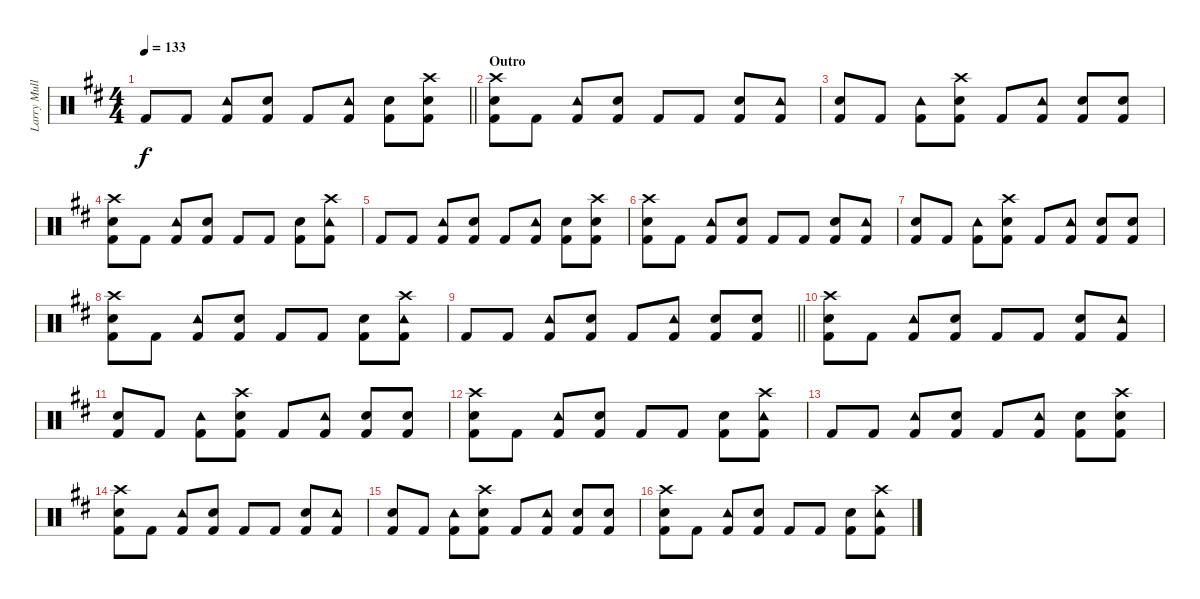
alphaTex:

\track ("Larry Mullen Jr." "Larry Mull") {instrument percussion}
\staff {score}
\articulation defaults
\ts (4 4)
\tempo 133
\clef neutral
\barLineRight lightlight
\ks d "Kick (hit) 2".8{dy f} "Kick (hit) 2".8
("Kick (hit) 2" "Tambourine (hit)").8 ("Kick (hit) 2" "Snare (hit) 2").8 "Kick (hit) 2".8 ("Kick (hit) 2" "Tambourine (hit)").8 ("Kick (hit) 2" "Snare (hit) 2").8 ("Kick (hit) 2" "Snare (hit) 2" "Crash high (hit)").8 |
\section ("" "Outro")
("Kick (hit) 2" "Crash high (hit)" "Snare (hit) 2").8 "Kick (hit) 2".8 ("Kick (hit) 2" "Tambourine (hit)").8 ("Kick (hit) 2" "Snare (hit) 2").8 "Kick (hit) 2".8 "Kick (hit) 2".8 ("Kick (hit) 2" "Snare (hit) 2").8 ("Kick (hit) 2" "Tambourine (hit)").8 |
("Kick (hit) 2" "Snare (hit) 2").8 "Kick (hit) 2".8 ("Kick (hit) 2" "Tambourine (hit)").8 ("Kick (hit) 2" "Snare (hit) 2" "Crash high (hit)").8 "Kick (hit) 2".8 ("Kick (hit) 2" "Tambourine (hit)").8 ("Kick (hit) 2" "Snare (hit) 2").8 ("Kick (hit) 2" "Snare (hit) 2").8 |
("Kick (hit) 2" "Crash high (hit)" "Snare (hit) 2").8 "Kick (hit) 2".8 ("Kick (hit) 2" "Tambourine (hit)").8 ("Kick (hit) 2" "Snare (hit) 2").8 "Kick (hit) 2".8 "Kick (hit) 2".8 ("Kick (hit) 2" "Snare (hit) 2").8 ("Kick (hit) 2" "Tambourine (hit)" "Crash high (hit)").8 |
"Kick (hit) 2".8 "Kick (hit) 2".8 ("Kick (hit) 2" "Tambourine (hit)").8 ("Kick (hit) 2" "Snare (hit) 2").8 "Kick (hit) 2".8 ("Kick (hit) 2" "Tambourine (hit)").8 ("Kick (hit) 2" "Snare (hit) 2").8 ("Kick (hit) 2" "Snare (hit) 2" "Crash high (hit)").8 |
("Kick (hit) 2" "Crash high (hit)" "Snare (hit) 2").8 "Kick (hit) 2".8 ("Kick (hit) 2" "Tambourine (hit)").8 ("Kick (hit) 2" "Snare (hit) 2").8 "Kick (hit) 2".8 "Kick (hit) 2".8 ("Kick (hit) 2" "Snare (hit) 2").8 ("Kick (hit) 2" "Tambourine (hit)").8 |
("Kick (hit) 2" "Snare (hit) 2").8 "Kick (hit) 2".8 ("Kick (hit) 2" "Tambourine (hit)").8 ("Kick (hit) 2" "Snare (hit) 2" "Crash high (hit)").8 "Kick (hit) 2".8 ("Kick (hit) 2" "Tambourine (hit)").8 ("Kick (hit) 2" "Snare (hit) 2").8 ("Kick (hit) 2" "Snare (hit) 2").8 |
("Kick (hit) 2" "Crash high (hit)" "Snare (hit) 2").8 "Kick (hit) 2".8 ("Kick (hit) 2" "Tambourine (hit)").8 ("Kick (hit) 2" "Snare (hit) 2").8 "Kick (hit) 2".8 "Kick (hit) 2".8 ("Kick (hit) 2" "Snare (hit) 2").8 ("Kick (hit) 2" "Tambourine (hit)" "Crash high (hit)").8 |
\barLineRight lightlight "Kick (hit) 2".8 "Kick (hit) 2".8
("Kick (hit) 2" "Tambourine (hit)").8 ("Kick (hit) 2" "Snare (hit) 2").8 "Kick (hit) 2".8 ("Kick (hit) 2" "Tambourine (hit)").8 ("Kick (hit) 2" "Snare (hit) 2").8 ("Kick (hit) 2" "Snare (hit) 2").8 |
("Kick (hit) 2" "Crash high (hit)" "Snare (hit) 2").8 "Kick (hit) 2".8 ("Kick (hit) 2" "Tambourine (hit)").8 ("Kick (hit) 2" "Snare (hit) 2").8 "Kick (hit) 2".8 "Kick (hit) 2".8 ("Kick (hit) 2" "Snare (hit) 2").8 ("Kick (hit) 2" "Tambourine (hit)").8 |
("Kick (hit) 2" "Snare (hit) 2").8 "Kick (hit) 2".8 ("Kick (hit) 2" "Tambourine (hit)").8 ("Kick (hit) 2" "Snare (hit) 2" "Crash high (hit)").8 "Kick (hit) 2".8 ("Kick (hit) 2" "Tambourine (hit)").8 ("Kick (hit) 2" "Snare (hit) 2").8 ("Kick (hit) 2" "Snare (hit) 2").8 |
("Kick (hit) 2" "Crash high (hit)" "Snare (hit) 2").8 "Kick (hit) 2".8 ("Kick (hit) 2" "Tambourine (hit)").8 ("Kick (hit) 2" "Snare (hit) 2").8 "Kick (hit) 2".8 "Kick (hit) 2".8 ("Kick (hit) 2" "Snare (hit) 2").8 ("Kick (hit) 2" "Tambourine (hit)" "Crash high (hit)").8 |
"Kick (hit) 2".8 "Kick (hit) 2".8 ("Kick (hit) 2" "Tambourine (hit)").8 ("Kick (hit) 2" "Snare (hit) 2").8 "Kick (hit) 2".8 ("Kick (hit) 2" "Tambourine (hit)").8 ("Kick (hit) 2" "Snare (hit) 2").8 ("Kick (hit) 2" "Snare (hit) 2" "Crash high (hit)").8 |
("Kick (hit) 2" "Crash high (hit)" "Snare (hit) 2").8 "Kick (hit) 2".8 ("Kick (hit) 2" "Tambourine (hit)").8 ("Kick (hit) 2" "Snare (hit) 2").8 "Kick (hit) 2".8 "Kick (hit) 2".8 ("Kick (hit) 2" "Snare (hit) 2").8 ("Kick (hit) 2" "Tambourine (hit)").8 |
("Kick (hit) 2" "Snare (hit) 2").8 "Kick (hit) 2".8 ("Kick (hit) 2" "Tambourine (hit)").8 ("Kick (hit) 2" "Snare (hit) 2" "Crash high (hit)").8 "Kick (hit) 2".8 ("Kick (hit) 2" "Tambourine (hit)").8 ("Kick (hit) 2" "Snare (hit) 2").8 ("Kick (hit) 2" "Snare (hit) 2").8 |
("Kick (hit) 2" "Crash high (hit)" "Snare (hit) 2").8 "Kick (hit) 2".8 ("Kick (hit) 2" "Tambourine (hit)").8 ("Kick (hit) 2" "Snare (hit) 2").8 "Kick (hit) 2".8 "Kick (hit) 2".8 ("Kick (hit) 2" "Snare (hit) 2").8 ("Kick (hit) 2" "Tambourine (hit)" "Crash high (hit)").8
